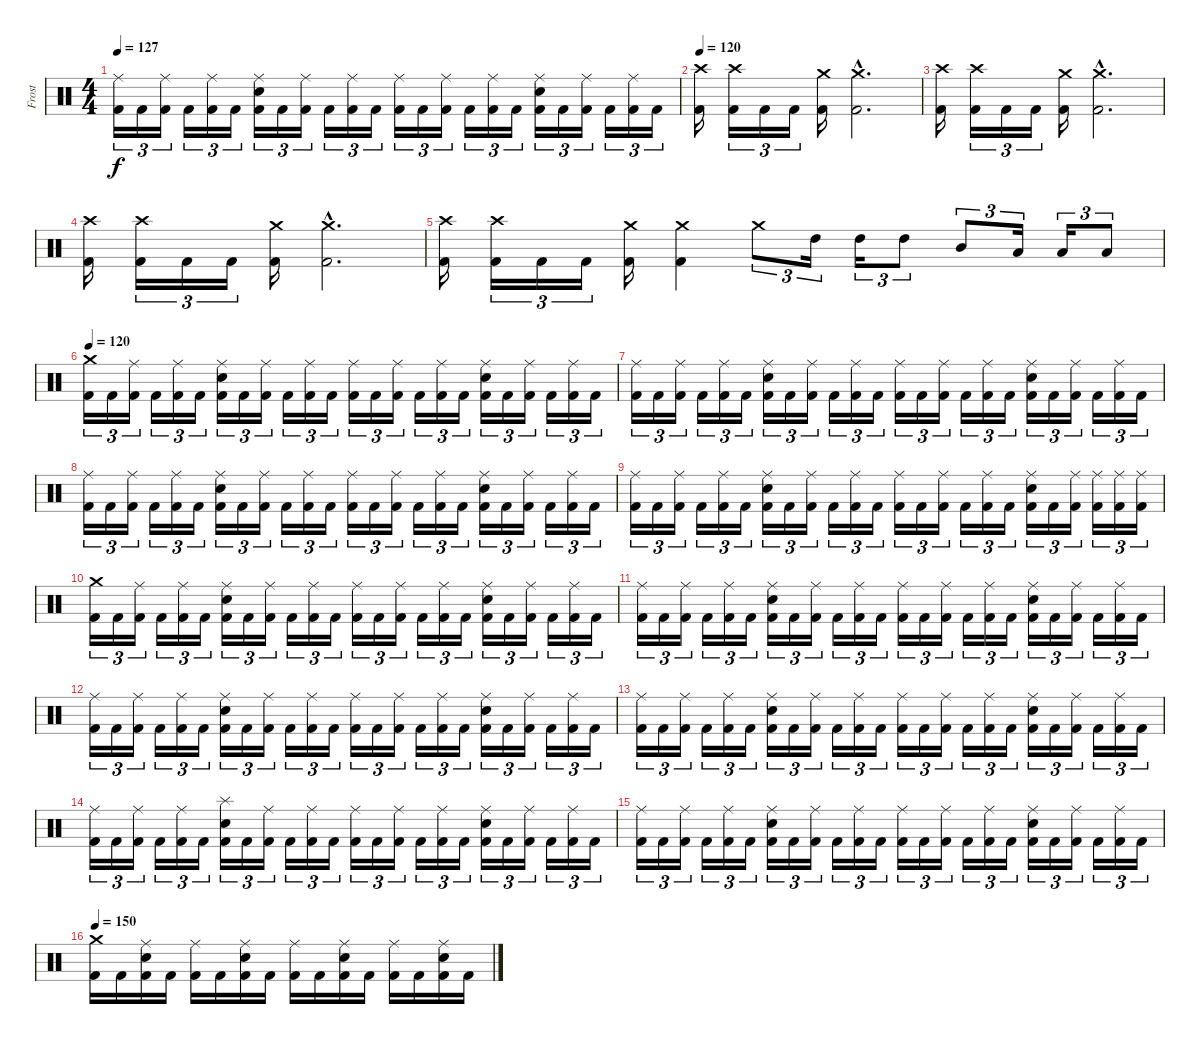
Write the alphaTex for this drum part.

\track ("Frost" "Frost") {instrument percussion}
\staff {score}
\articulation defaults
\ts (4 4)
\tempo 127
\clef neutral
\ks c
("Ride (middle)" "Kick (hit) 2").16{tu (3 2) dy f} "Kick (hit) 2".16{tu (3 2)} ("Ride (middle)" "Kick (hit) 2").16{tu (3 2)} "Kick (hit) 2".16{tu (3 2)} ("Ride (middle)" "Kick (hit) 2").16{tu (3 2)} "Kick (hit) 2".16{tu (3 2)} ("Ride (middle)" "Electric Snare (hit)" "Kick (hit) 2").16{tu (3 2)} "Kick (hit) 2".16{tu (3 2)} ("Ride (middle)" "Kick (hit) 2").16{tu (3 2)} "Kick (hit) 2".16{tu (3 2)} ("Ride (middle)" "Kick (hit) 2").16{tu (3 2)} "Kick (hit) 2".16{tu (3 2)} ("Ride (middle)" "Kick (hit) 2").16{tu (3 2)} "Kick (hit) 2".16{tu (3 2)} ("Ride (middle)" "Kick (hit) 2").16{tu (3 2)} "Kick (hit) 2".16{tu (3 2)} ("Ride (middle)" "Kick (hit) 2").16{tu (3 2)} "Kick (hit) 2".16{tu (3 2)} ("Ride (middle)" "Electric Snare (hit)" "Kick (hit) 2").16{tu (3 2)} "Kick (hit) 2".16{tu (3 2)} ("Ride (middle)" "Kick (hit) 2").16{tu (3 2)} "Kick (hit) 2".16{tu (3 2)} ("Ride (middle)" "Kick (hit) 2").16{tu (3 2)} "Kick (hit) 2".16{tu (3 2)} |
\tempo 120
("Crash high (hit)" "Kick (hit) 2").16 ("Crash high (hit)" "Kick (hit) 2").16{tu (3 2)} "Kick (hit) 2".16{tu (3 2)} "Kick (hit) 2".16{tu (3 2)} ("Crash medium (hit)" "Kick (hit) 2").16 ("Crash medium (hit)"{hac} "Kick (hit) 2"{hac}).2{d} |
("Crash high (hit)" "Kick (hit) 2").16 ("Crash high (hit)" "Kick (hit) 2").16{tu (3 2)} "Kick (hit) 2".16{tu (3 2)} "Kick (hit) 2".16{tu (3 2)} ("Crash medium (hit)" "Kick (hit) 2").16 ("Crash medium (hit)"{hac} "Kick (hit) 2"{hac}).2{d} |
("Crash high (hit)" "Kick (hit) 2").16 ("Crash high (hit)" "Kick (hit) 2").16{tu (3 2)} "Kick (hit) 2".16{tu (3 2)} "Kick (hit) 2".16{tu (3 2)} ("Crash medium (hit)" "Kick (hit) 2").16 ("Crash medium (hit)"{hac} "Kick (hit) 2"{hac}).2{d} |
("Crash high (hit)" "Kick (hit) 2").16 ("Crash high (hit)" "Kick (hit) 2").16{tu (3 2)} "Kick (hit) 2".16{tu (3 2)} "Kick (hit) 2".16{tu (3 2)} ("Crash medium (hit)" "Kick (hit) 2").16 ("Crash medium (hit)" "Kick (hit) 2").4 "Crash medium (hit)".8{tu (3 2)} "High Tom (hit)".16{tu (3 2)} "High Tom (hit)".16{tu (3 2)} "High Tom (hit)".8{tu (3 2)} "Mid Tom (hit)".8{tu (3 2)} "Low Tom (hit)".16{tu (3 2)} "Low Tom (hit)".16{tu (3 2)} "Low Tom (hit)".8{tu (3 2)} |
\tempo 120
("Crash medium (hit)" "Kick (hit) 2").16{tu (3 2)} "Kick (hit) 2".16{tu (3 2)} ("Ride (middle)" "Kick (hit) 2").16{tu (3 2)} "Kick (hit) 2".16{tu (3 2)} ("Ride (middle)" "Kick (hit) 2").16{tu (3 2)} "Kick (hit) 2".16{tu (3 2)} ("Ride (middle)" "Electric Snare (hit)" "Kick (hit) 2").16{tu (3 2)} "Kick (hit) 2".16{tu (3 2)} ("Ride (middle)" "Kick (hit) 2").16{tu (3 2)} "Kick (hit) 2".16{tu (3 2)} ("Ride (middle)" "Kick (hit) 2").16{tu (3 2)} "Kick (hit) 2".16{tu (3 2)} ("Ride (middle)" "Kick (hit) 2").16{tu (3 2)} "Kick (hit) 2".16{tu (3 2)} ("Ride (middle)" "Kick (hit) 2").16{tu (3 2)} "Kick (hit) 2".16{tu (3 2)} ("Ride (middle)" "Kick (hit) 2").16{tu (3 2)} "Kick (hit) 2".16{tu (3 2)} ("Ride (middle)" "Electric Snare (hit)" "Kick (hit) 2").16{tu (3 2)} "Kick (hit) 2".16{tu (3 2)} ("Ride (middle)" "Kick (hit) 2").16{tu (3 2)} "Kick (hit) 2".16{tu (3 2)} ("Ride (middle)" "Kick (hit) 2").16{tu (3 2)} "Kick (hit) 2".16{tu (3 2)} |
("Ride (middle)" "Kick (hit) 2").16{tu (3 2)} "Kick (hit) 2".16{tu (3 2)} ("Ride (middle)" "Kick (hit) 2").16{tu (3 2)} "Kick (hit) 2".16{tu (3 2)} ("Ride (middle)" "Kick (hit) 2").16{tu (3 2)} "Kick (hit) 2".16{tu (3 2)} ("Ride (middle)" "Electric Snare (hit)" "Kick (hit) 2").16{tu (3 2)} "Kick (hit) 2".16{tu (3 2)} ("Ride (middle)" "Kick (hit) 2").16{tu (3 2)} "Kick (hit) 2".16{tu (3 2)} ("Ride (middle)" "Kick (hit) 2").16{tu (3 2)} "Kick (hit) 2".16{tu (3 2)} ("Ride (middle)" "Kick (hit) 2").16{tu (3 2)} "Kick (hit) 2".16{tu (3 2)} ("Ride (middle)" "Kick (hit) 2").16{tu (3 2)} "Kick (hit) 2".16{tu (3 2)} ("Ride (middle)" "Kick (hit) 2").16{tu (3 2)} "Kick (hit) 2".16{tu (3 2)} ("Ride (middle)" "Electric Snare (hit)" "Kick (hit) 2").16{tu (3 2)} "Kick (hit) 2".16{tu (3 2)} ("Ride (middle)" "Kick (hit) 2").16{tu (3 2)} "Kick (hit) 2".16{tu (3 2)} ("Ride (middle)" "Kick (hit) 2").16{tu (3 2)} "Kick (hit) 2".16{tu (3 2)} |
("Ride (middle)" "Kick (hit) 2").16{tu (3 2)} "Kick (hit) 2".16{tu (3 2)} ("Ride (middle)" "Kick (hit) 2").16{tu (3 2)} "Kick (hit) 2".16{tu (3 2)} ("Ride (middle)" "Kick (hit) 2").16{tu (3 2)} "Kick (hit) 2".16{tu (3 2)} ("Ride (middle)" "Electric Snare (hit)" "Kick (hit) 2").16{tu (3 2)} "Kick (hit) 2".16{tu (3 2)} ("Ride (middle)" "Kick (hit) 2").16{tu (3 2)} "Kick (hit) 2".16{tu (3 2)} ("Ride (middle)" "Kick (hit) 2").16{tu (3 2)} "Kick (hit) 2".16{tu (3 2)} ("Ride (middle)" "Kick (hit) 2").16{tu (3 2)} "Kick (hit) 2".16{tu (3 2)} ("Ride (middle)" "Kick (hit) 2").16{tu (3 2)} "Kick (hit) 2".16{tu (3 2)} ("Ride (middle)" "Kick (hit) 2").16{tu (3 2)} "Kick (hit) 2".16{tu (3 2)} ("Ride (middle)" "Electric Snare (hit)" "Kick (hit) 2").16{tu (3 2)} "Kick (hit) 2".16{tu (3 2)} ("Ride (middle)" "Kick (hit) 2").16{tu (3 2)} "Kick (hit) 2".16{tu (3 2)} ("Ride (middle)" "Kick (hit) 2").16{tu (3 2)} "Kick (hit) 2".16{tu (3 2)} |
("Ride (middle)" "Kick (hit) 2").16{tu (3 2)} "Kick (hit) 2".16{tu (3 2)} ("Ride (middle)" "Kick (hit) 2").16{tu (3 2)} "Kick (hit) 2".16{tu (3 2)} ("Ride (middle)" "Kick (hit) 2").16{tu (3 2)} "Kick (hit) 2".16{tu (3 2)} ("Ride (middle)" "Electric Snare (hit)" "Kick (hit) 2").16{tu (3 2)} "Kick (hit) 2".16{tu (3 2)} ("Ride (middle)" "Kick (hit) 2").16{tu (3 2)} "Kick (hit) 2".16{tu (3 2)} ("Ride (middle)" "Kick (hit) 2").16{tu (3 2)} "Kick (hit) 2".16{tu (3 2)} ("Ride (middle)" "Kick (hit) 2").16{tu (3 2)} "Kick (hit) 2".16{tu (3 2)} ("Ride (middle)" "Kick (hit) 2").16{tu (3 2)} "Kick (hit) 2".16{tu (3 2)} ("Ride (middle)" "Kick (hit) 2").16{tu (3 2)} "Kick (hit) 2".16{tu (3 2)} ("Ride (middle)" "Electric Snare (hit)" "Kick (hit) 2").16{tu (3 2)} "Kick (hit) 2".16{tu (3 2)} ("Ride (middle)" "Kick (hit) 2").16{tu (3 2)} ("Ride (middle)" "Kick (hit) 2").16{tu (3 2)} ("Ride (middle)" "Kick (hit) 2").16{tu (3 2)} ("Ride (middle)" "Kick (hit) 2").16{tu (3 2)} |
("Crash medium (hit)" "Kick (hit) 2").16{tu (3 2)} "Kick (hit) 2".16{tu (3 2)} ("Ride (middle)" "Kick (hit) 2").16{tu (3 2)} "Kick (hit) 2".16{tu (3 2)} ("Ride (middle)" "Kick (hit) 2").16{tu (3 2)} "Kick (hit) 2".16{tu (3 2)} ("Ride (middle)" "Electric Snare (hit)" "Kick (hit) 2").16{tu (3 2)} "Kick (hit) 2".16{tu (3 2)} ("Ride (middle)" "Kick (hit) 2").16{tu (3 2)} "Kick (hit) 2".16{tu (3 2)} ("Ride (middle)" "Kick (hit) 2").16{tu (3 2)} "Kick (hit) 2".16{tu (3 2)} ("Ride (middle)" "Kick (hit) 2").16{tu (3 2)} "Kick (hit) 2".16{tu (3 2)} ("Ride (middle)" "Kick (hit) 2").16{tu (3 2)} "Kick (hit) 2".16{tu (3 2)} ("Ride (middle)" "Kick (hit) 2").16{tu (3 2)} "Kick (hit) 2".16{tu (3 2)} ("Ride (middle)" "Electric Snare (hit)" "Kick (hit) 2").16{tu (3 2)} "Kick (hit) 2".16{tu (3 2)} ("Ride (middle)" "Kick (hit) 2").16{tu (3 2)} "Kick (hit) 2".16{tu (3 2)} ("Ride (middle)" "Kick (hit) 2").16{tu (3 2)} "Kick (hit) 2".16{tu (3 2)} |
("Ride (middle)" "Kick (hit) 2").16{tu (3 2)} "Kick (hit) 2".16{tu (3 2)} ("Ride (middle)" "Kick (hit) 2").16{tu (3 2)} "Kick (hit) 2".16{tu (3 2)} ("Ride (middle)" "Kick (hit) 2").16{tu (3 2)} "Kick (hit) 2".16{tu (3 2)} ("Ride (middle)" "Electric Snare (hit)" "Kick (hit) 2").16{tu (3 2)} "Kick (hit) 2".16{tu (3 2)} ("Ride (middle)" "Kick (hit) 2").16{tu (3 2)} "Kick (hit) 2".16{tu (3 2)} ("Ride (middle)" "Kick (hit) 2").16{tu (3 2)} "Kick (hit) 2".16{tu (3 2)} ("Ride (middle)" "Kick (hit) 2").16{tu (3 2)} "Kick (hit) 2".16{tu (3 2)} ("Ride (middle)" "Kick (hit) 2").16{tu (3 2)} "Kick (hit) 2".16{tu (3 2)} ("Ride (middle)" "Kick (hit) 2").16{tu (3 2)} "Kick (hit) 2".16{tu (3 2)} ("Ride (middle)" "Electric Snare (hit)" "Kick (hit) 2").16{tu (3 2)} "Kick (hit) 2".16{tu (3 2)} ("Ride (middle)" "Kick (hit) 2").16{tu (3 2)} "Kick (hit) 2".16{tu (3 2)} ("Ride (middle)" "Kick (hit) 2").16{tu (3 2)} "Kick (hit) 2".16{tu (3 2)} |
("Ride (middle)" "Kick (hit) 2").16{tu (3 2)} "Kick (hit) 2".16{tu (3 2)} ("Ride (middle)" "Kick (hit) 2").16{tu (3 2)} "Kick (hit) 2".16{tu (3 2)} ("Ride (middle)" "Kick (hit) 2").16{tu (3 2)} "Kick (hit) 2".16{tu (3 2)} ("Ride (middle)" "Electric Snare (hit)" "Kick (hit) 2").16{tu (3 2)} "Kick (hit) 2".16{tu (3 2)} ("Ride (middle)" "Kick (hit) 2").16{tu (3 2)} "Kick (hit) 2".16{tu (3 2)} ("Ride (middle)" "Kick (hit) 2").16{tu (3 2)} "Kick (hit) 2".16{tu (3 2)} ("Ride (middle)" "Kick (hit) 2").16{tu (3 2)} "Kick (hit) 2".16{tu (3 2)} ("Ride (middle)" "Kick (hit) 2").16{tu (3 2)} "Kick (hit) 2".16{tu (3 2)} ("Ride (middle)" "Kick (hit) 2").16{tu (3 2)} "Kick (hit) 2".16{tu (3 2)} ("Ride (middle)" "Electric Snare (hit)" "Kick (hit) 2").16{tu (3 2)} "Kick (hit) 2".16{tu (3 2)} ("Ride (middle)" "Kick (hit) 2").16{tu (3 2)} "Kick (hit) 2".16{tu (3 2)} ("Ride (middle)" "Kick (hit) 2").16{tu (3 2)} "Kick (hit) 2".16{tu (3 2)} |
("Ride (middle)" "Kick (hit) 2").16{tu (3 2)} "Kick (hit) 2".16{tu (3 2)} ("Ride (middle)" "Kick (hit) 2").16{tu (3 2)} "Kick (hit) 2".16{tu (3 2)} ("Ride (middle)" "Kick (hit) 2").16{tu (3 2)} "Kick (hit) 2".16{tu (3 2)} ("Ride (middle)" "Electric Snare (hit)" "Kick (hit) 2").16{tu (3 2)} "Kick (hit) 2".16{tu (3 2)} ("Ride (middle)" "Kick (hit) 2").16{tu (3 2)} "Kick (hit) 2".16{tu (3 2)} ("Ride (middle)" "Kick (hit) 2").16{tu (3 2)} "Kick (hit) 2".16{tu (3 2)} ("Ride (middle)" "Kick (hit) 2").16{tu (3 2)} "Kick (hit) 2".16{tu (3 2)} ("Ride (middle)" "Kick (hit) 2").16{tu (3 2)} "Kick (hit) 2".16{tu (3 2)} ("Ride (middle)" "Kick (hit) 2").16{tu (3 2)} "Kick (hit) 2".16{tu (3 2)} ("Ride (middle)" "Electric Snare (hit)" "Kick (hit) 2").16{tu (3 2)} "Kick (hit) 2".16{tu (3 2)} ("Ride (middle)" "Kick (hit) 2").16{tu (3 2)} "Kick (hit) 2".16{tu (3 2)} ("Ride (middle)" "Kick (hit) 2").16{tu (3 2)} "Kick (hit) 2".16{tu (3 2)} |
("Ride (middle)" "Kick (hit) 2").16{tu (3 2)} "Kick (hit) 2".16{tu (3 2)} ("Ride (middle)" "Kick (hit) 2").16{tu (3 2)} "Kick (hit) 2".16{tu (3 2)} ("Ride (middle)" "Kick (hit) 2").16{tu (3 2)} "Kick (hit) 2".16{tu (3 2)} ("Splash (hit)" "Electric Snare (hit)" "Kick (hit) 2").16{tu (3 2)} "Kick (hit) 2".16{tu (3 2)} ("Ride (middle)" "Kick (hit) 2").16{tu (3 2)} "Kick (hit) 2".16{tu (3 2)} ("Ride (middle)" "Kick (hit) 2").16{tu (3 2)} "Kick (hit) 2".16{tu (3 2)} ("Ride (middle)" "Kick (hit) 2").16{tu (3 2)} "Kick (hit) 2".16{tu (3 2)} ("Ride (middle)" "Kick (hit) 2").16{tu (3 2)} "Kick (hit) 2".16{tu (3 2)} ("Ride (middle)" "Kick (hit) 2").16{tu (3 2)} "Kick (hit) 2".16{tu (3 2)} ("Ride (middle)" "Electric Snare (hit)" "Kick (hit) 2").16{tu (3 2)} "Kick (hit) 2".16{tu (3 2)} ("Ride (middle)" "Kick (hit) 2").16{tu (3 2)} "Kick (hit) 2".16{tu (3 2)} ("Ride (middle)" "Kick (hit) 2").16{tu (3 2)} "Kick (hit) 2".16{tu (3 2)} |
("Ride (middle)" "Kick (hit) 2").16{tu (3 2)} "Kick (hit) 2".16{tu (3 2)} ("Ride (middle)" "Kick (hit) 2").16{tu (3 2)} "Kick (hit) 2".16{tu (3 2)} ("Ride (middle)" "Kick (hit) 2").16{tu (3 2)} "Kick (hit) 2".16{tu (3 2)} ("Ride (middle)" "Electric Snare (hit)" "Kick (hit) 2").16{tu (3 2)} "Kick (hit) 2".16{tu (3 2)} ("Ride (middle)" "Kick (hit) 2").16{tu (3 2)} "Kick (hit) 2".16{tu (3 2)} ("Ride (middle)" "Kick (hit) 2").16{tu (3 2)} "Kick (hit) 2".16{tu (3 2)} ("Ride (middle)" "Kick (hit) 2").16{tu (3 2)} "Kick (hit) 2".16{tu (3 2)} ("Ride (middle)" "Kick (hit) 2").16{tu (3 2)} "Kick (hit) 2".16{tu (3 2)} ("Ride (middle)" "Kick (hit) 2").16{tu (3 2)} "Kick (hit) 2".16{tu (3 2)} ("Ride (middle)" "Electric Snare (hit)" "Kick (hit) 2").16{tu (3 2)} "Kick (hit) 2".16{tu (3 2)} ("Ride (middle)" "Kick (hit) 2").16{tu (3 2)} "Kick (hit) 2".16{tu (3 2)} ("Ride (middle)" "Kick (hit) 2").16{tu (3 2)} "Kick (hit) 2".16{tu (3 2)} |
\tempo 150
("Crash medium (hit)" "Kick (hit) 2").16 "Kick (hit) 2".16 ("Ride (middle)" "Electric Snare (hit)" "Kick (hit) 2").16 "Kick (hit) 2".16 ("Ride (middle)" "Kick (hit) 2").16 "Kick (hit) 2".16 ("Ride (middle)" "Electric Snare (hit)" "Kick (hit) 2").16 "Kick (hit) 2".16 ("Ride (middle)" "Kick (hit) 2").16 "Kick (hit) 2".16 ("Ride (middle)" "Electric Snare (hit)" "Kick (hit) 2").16 "Kick (hit) 2".16 ("Ride (middle)" "Kick (hit) 2").16 "Kick (hit) 2".16 ("Ride (middle)" "Electric Snare (hit)" "Kick (hit) 2").16 "Kick (hit) 2".16
